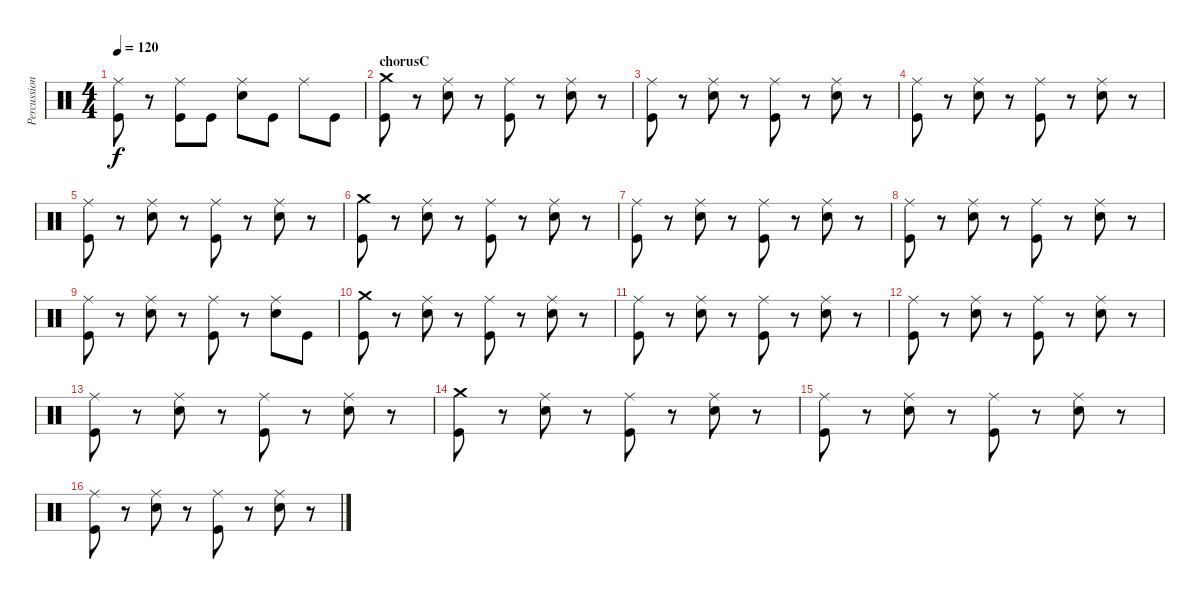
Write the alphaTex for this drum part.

\track ("Percussion" "Percussion") {instrument percussion}
\staff {score}
\articulation defaults
\ts (4 4)
\tempo 120
\clef neutral
\ks c
("Ride (middle)" "Kick (hit)").8{dy f} r.8 ("Ride (middle)" "Kick (hit)").8 "Kick (hit)".8 ("Ride (middle)" "Electric Snare (hit)").8 "Kick (hit)".8 "Ride (middle)".8 "Kick (hit)".8 |
\section ("" "chorusC")
("Crash medium (hit)" "Kick (hit)").8 r.8 ("Ride (middle)" "Electric Snare (hit)").8 r.8 ("Ride (middle)" "Kick (hit)").8 r.8 ("Ride (middle)" "Electric Snare (hit)").8 r.8 |
("Ride (middle)" "Kick (hit)").8 r.8 ("Ride (middle)" "Electric Snare (hit)").8 r.8 ("Ride (middle)" "Kick (hit)").8 r.8 ("Ride (middle)" "Electric Snare (hit)").8 r.8 |
("Ride (middle)" "Kick (hit)").8 r.8 ("Ride (middle)" "Electric Snare (hit)").8 r.8 ("Ride (middle)" "Kick (hit)").8 r.8 ("Ride (middle)" "Electric Snare (hit)").8 r.8 |
("Ride (middle)" "Kick (hit)").8 r.8 ("Ride (middle)" "Electric Snare (hit)").8 r.8 ("Ride (middle)" "Kick (hit)").8 r.8 ("Ride (middle)" "Electric Snare (hit)").8 r.8 |
("Crash medium (hit)" "Kick (hit)").8 r.8 ("Ride (middle)" "Electric Snare (hit)").8 r.8 ("Ride (middle)" "Kick (hit)").8 r.8 ("Ride (middle)" "Electric Snare (hit)").8 r.8 |
("Ride (middle)" "Kick (hit)").8 r.8 ("Ride (middle)" "Electric Snare (hit)").8 r.8 ("Ride (middle)" "Kick (hit)").8 r.8 ("Ride (middle)" "Electric Snare (hit)").8 r.8 |
("Ride (middle)" "Kick (hit)").8 r.8 ("Ride (middle)" "Electric Snare (hit)").8 r.8 ("Ride (middle)" "Kick (hit)").8 r.8 ("Ride (middle)" "Electric Snare (hit)").8 r.8 |
("Ride (middle)" "Kick (hit)").8 r.8 ("Ride (middle)" "Electric Snare (hit)").8 r.8 ("Ride (middle)" "Kick (hit)").8 r.8 ("Ride (middle)" "Electric Snare (hit)").8 "Kick (hit)".8 |
("Crash medium (hit)" "Kick (hit)").8 r.8 ("Ride (middle)" "Electric Snare (hit)").8 r.8 ("Ride (middle)" "Kick (hit)").8 r.8 ("Ride (middle)" "Electric Snare (hit)").8 r.8 |
("Ride (middle)" "Kick (hit)").8 r.8 ("Ride (middle)" "Electric Snare (hit)").8 r.8 ("Ride (middle)" "Kick (hit)").8 r.8 ("Ride (middle)" "Electric Snare (hit)").8 r.8 |
("Ride (middle)" "Kick (hit)").8 r.8 ("Ride (middle)" "Electric Snare (hit)").8 r.8 ("Ride (middle)" "Kick (hit)").8 r.8 ("Ride (middle)" "Electric Snare (hit)").8 r.8 |
("Ride (middle)" "Kick (hit)").8 r.8 ("Ride (middle)" "Electric Snare (hit)").8 r.8 ("Ride (middle)" "Kick (hit)").8 r.8 ("Ride (middle)" "Electric Snare (hit)").8 r.8 |
("Crash medium (hit)" "Kick (hit)").8 r.8 ("Ride (middle)" "Electric Snare (hit)").8 r.8 ("Ride (middle)" "Kick (hit)").8 r.8 ("Ride (middle)" "Electric Snare (hit)").8 r.8 |
("Ride (middle)" "Kick (hit)").8 r.8 ("Ride (middle)" "Electric Snare (hit)").8 r.8 ("Ride (middle)" "Kick (hit)").8 r.8 ("Ride (middle)" "Electric Snare (hit)").8 r.8 |
("Ride (middle)" "Kick (hit)").8 r.8 ("Ride (middle)" "Electric Snare (hit)").8 r.8 ("Ride (middle)" "Kick (hit)").8 r.8 ("Ride (middle)" "Electric Snare (hit)").8 r.8
